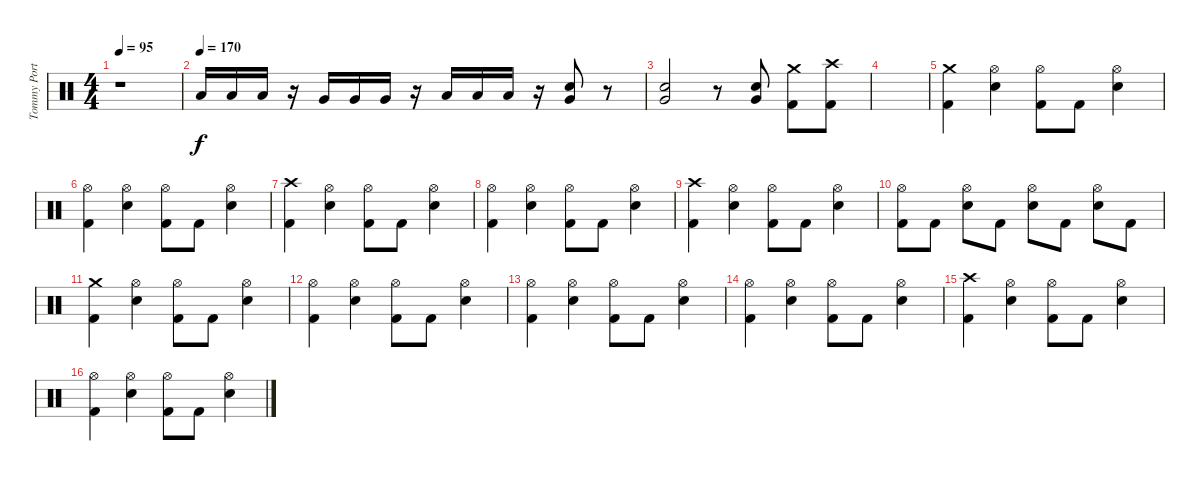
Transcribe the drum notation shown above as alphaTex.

\track ("Tommy Portino" "Tommy Port") {instrument percussion}
\staff {score}
\articulation defaults
\ts (4 4)
\tempo 95
\clef neutral
\ks c
r.1{dy f} |
\tempo (170)
"Low Tom (hit)".16 "Low Tom (hit)".16 "Low Tom (hit)".16 r.16 "Very Low Tom (hit)".16 "Very Low Tom (hit)".16 "Very Low Tom (hit)".16 r.16 "Low Floor Tom (hit)".16 "Low Floor Tom (hit)".16 "Low Floor Tom (hit)".16 r.16 ("Electric Snare (hit)" "Very Low Tom (hit)").8 r.8 |
("Electric Snare (hit)" "Very Low Tom (hit)").2 r.8 ("Electric Snare (hit)" "Very Low Tom (hit)").8 ("Crash medium (hit)" "Kick (hit) 2").8 ("Crash high (hit)" "Kick (hit) 2").8 |
|
("Crash medium (hit)" "Kick (hit) 2").4 ("Hi-Hat (open)" "Electric Snare (hit)").4 ("Hi-Hat (open)" "Kick (hit) 2").8 "Kick (hit) 2".8 ("Hi-Hat (open)" "Electric Snare (hit)").4 |
("Hi-Hat (open)" "Kick (hit) 2").4 ("Hi-Hat (open)" "Electric Snare (hit)").4 ("Hi-Hat (open)" "Kick (hit) 2").8 "Kick (hit) 2".8 ("Hi-Hat (open)" "Electric Snare (hit)").4 |
("Crash high (hit)" "Kick (hit) 2").4 ("Hi-Hat (open)" "Electric Snare (hit)").4 ("Hi-Hat (open)" "Kick (hit) 2").8 "Kick (hit) 2".8 ("Hi-Hat (open)" "Electric Snare (hit)").4 |
("Hi-Hat (open)" "Kick (hit) 2").4 ("Hi-Hat (open)" "Electric Snare (hit)").4 ("Hi-Hat (open)" "Kick (hit) 2").8 "Kick (hit) 2".8 ("Hi-Hat (open)" "Electric Snare (hit)").4 |
("Crash high (hit)" "Kick (hit) 2").4 ("Hi-Hat (open)" "Electric Snare (hit)").4 ("Hi-Hat (open)" "Kick (hit) 2").8 "Kick (hit) 2".8 ("Hi-Hat (open)" "Electric Snare (hit)").4 |
("Hi-Hat (open)" "Kick (hit) 2").8 "Kick (hit) 2".8 ("Hi-Hat (open)" "Electric Snare (hit)").8 "Kick (hit) 2".8 ("Hi-Hat (open)" "Electric Snare (hit)").8 "Kick (hit) 2".8 ("Hi-Hat (open)" "Electric Snare (hit)").8 "Kick (hit) 2".8 |
("Crash medium (hit)" "Kick (hit) 2").4 ("Hi-Hat (open)" "Electric Snare (hit)").4 ("Hi-Hat (open)" "Kick (hit) 2").8 "Kick (hit) 2".8 ("Hi-Hat (open)" "Electric Snare (hit)").4 |
("Hi-Hat (open)" "Kick (hit) 2").4 ("Hi-Hat (open)" "Electric Snare (hit)").4 ("Hi-Hat (open)" "Kick (hit) 2").8 "Kick (hit) 2".8 ("Hi-Hat (open)" "Electric Snare (hit)").4 |
("Hi-Hat (open)" "Kick (hit) 2").4 ("Hi-Hat (open)" "Electric Snare (hit)").4 ("Hi-Hat (open)" "Kick (hit) 2").8 "Kick (hit) 2".8 ("Hi-Hat (open)" "Electric Snare (hit)").4 |
("Hi-Hat (open)" "Kick (hit) 2").4 ("Hi-Hat (open)" "Electric Snare (hit)").4 ("Hi-Hat (open)" "Kick (hit) 2").8 "Kick (hit) 2".8 ("Hi-Hat (open)" "Electric Snare (hit)").4 |
("Crash high (hit)" "Kick (hit) 2").4 ("Hi-Hat (open)" "Electric Snare (hit)").4 ("Hi-Hat (open)" "Kick (hit) 2").8 "Kick (hit) 2".8 ("Hi-Hat (open)" "Electric Snare (hit)").4 |
("Hi-Hat (open)" "Kick (hit) 2").4 ("Hi-Hat (open)" "Electric Snare (hit)").4 ("Hi-Hat (open)" "Kick (hit) 2").8 "Kick (hit) 2".8 ("Hi-Hat (open)" "Electric Snare (hit)").4
